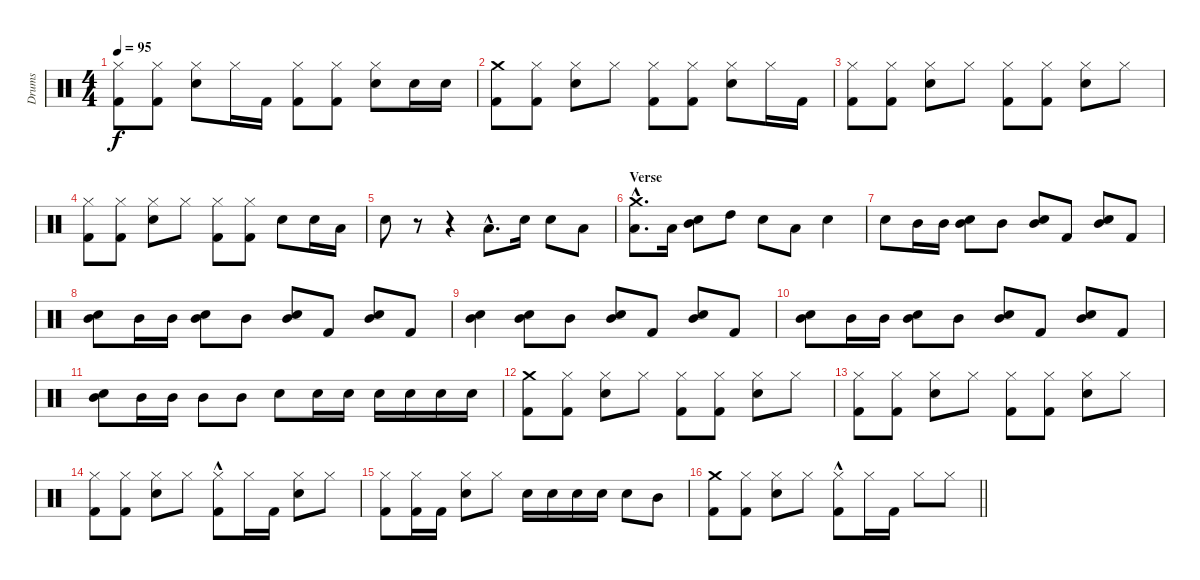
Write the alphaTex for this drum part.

\track ("Drums" "Drums") {instrument percussion}
\staff {score}
\articulation defaults
\ts (4 4)
\tempo 95
\clef neutral
\ks c
("Hi-Hat (closed)" "Kick (hit) 2").8{dy f} ("Hi-Hat (closed)" "Kick (hit) 2").8 ("Hi-Hat (closed)" "Snare (hit) 2").8 "Hi-Hat (closed)".16 "Kick (hit) 2".16 ("Hi-Hat (closed)" "Kick (hit) 2").8 ("Hi-Hat (closed)" "Kick (hit) 2").8 ("Hi-Hat (closed)" "Snare (hit) 2").8 "Snare (hit) 2".16 "Snare (hit) 2".16 |
("Crash medium (hit)" "Kick (hit) 2").8 ("Hi-Hat (closed)" "Kick (hit) 2").8 ("Hi-Hat (closed)" "Snare (hit) 2").8 "Hi-Hat (closed)".8 ("Hi-Hat (closed)" "Kick (hit) 2").8 ("Hi-Hat (closed)" "Kick (hit) 2").8 ("Hi-Hat (closed)" "Snare (hit) 2").8 "Hi-Hat (closed)".16 "Kick (hit) 2".16 |
("Hi-Hat (closed)" "Kick (hit) 2").8 ("Hi-Hat (closed)" "Kick (hit) 2").8 ("Hi-Hat (closed)" "Snare (hit) 2").8 "Hi-Hat (closed)".8 ("Hi-Hat (closed)" "Kick (hit) 2").8 ("Hi-Hat (closed)" "Kick (hit) 2").8 ("Hi-Hat (closed)" "Snare (hit) 2").8 "Hi-Hat (closed)".8 |
("Hi-Hat (closed)" "Kick (hit) 2").8 ("Hi-Hat (closed)" "Kick (hit) 2").8 ("Hi-Hat (closed)" "Snare (hit) 2").8 "Hi-Hat (closed)".8 ("Hi-Hat (closed)" "Kick (hit) 2").8 ("Hi-Hat (closed)" "Kick (hit) 2").8 "Snare (hit) 2".8 "Snare (hit) 2".16 "Low Tom (hit)".16 |
"Snare (hit) 2".8 r.8 r.4 "Low Tom (hit)"{hac}.8{d} "Snare (hit) 2".16 "Snare (hit) 2".8 "Low Tom (hit)".8 |
\section ("" "Verse")
("Crash medium (hit)"{hac} "Low Tom (hit)"{hac}).8{d} "Low Tom (hit)".16 ("Mid Tom (hit)" "Snare (hit) 2").8 "High Tom (hit)".8 "Snare (hit) 2".8 "Low Tom (hit)".8 "Snare (hit) 2".4 |
"Snare (hit) 2".8 "Mid Tom (hit)".16 "Mid Tom (hit)".16 ("Snare (hit) 2" "Mid Tom (hit)").8 "Mid Tom (hit)".8 ("Snare (hit) 2" "Mid Tom (hit)").8 "Kick (hit) 2".8 ("Snare (hit) 2" "Mid Tom (hit)").8 "Kick (hit) 2".8 |
("Snare (hit) 2" "Mid Tom (hit)").8 "Mid Tom (hit)".16 "Mid Tom (hit)".16 ("Mid Tom (hit)" "Snare (hit) 2").8 "Mid Tom (hit)".8 ("Mid Tom (hit)" "Snare (hit) 2").8 "Kick (hit) 2".8 ("Mid Tom (hit)" "Snare (hit) 2").8 "Kick (hit) 2".8 |
("Mid Tom (hit)" "Snare (hit) 2").4 ("Mid Tom (hit)" "Snare (hit) 2").8 "Mid Tom (hit)".8 ("Mid Tom (hit)" "Snare (hit) 2").8 "Kick (hit) 2".8 ("Mid Tom (hit)" "Snare (hit) 2").8 "Kick (hit) 2".8 |
("Mid Tom (hit)" "Snare (hit) 2").8 "Mid Tom (hit)".16 "Mid Tom (hit)".16 ("Mid Tom (hit)" "Snare (hit) 2").8 "Mid Tom (hit)".8 ("Mid Tom (hit)" "Snare (hit) 2").8 "Kick (hit) 2".8 ("Mid Tom (hit)" "Snare (hit) 2").8 "Kick (hit) 2".8 |
("Mid Tom (hit)" "Snare (hit) 2").8 "Mid Tom (hit)".16 "Mid Tom (hit)".16 "Mid Tom (hit)".8 "Mid Tom (hit)".8 "Snare (hit) 2".8 "Snare (hit) 2".16 "Snare (hit) 2".16 "Snare (hit) 2".16 "Snare (hit) 2".16 "Snare (hit) 2".16 "Snare (hit) 2".16 |
("Crash medium (hit)" "Kick (hit) 2").8 ("Hi-Hat (closed)" "Kick (hit) 2").8 ("Hi-Hat (closed)" "Snare (hit) 2").8 "Hi-Hat (closed)".8 ("Hi-Hat (closed)" "Kick (hit) 2").8 ("Hi-Hat (closed)" "Kick (hit) 2").8 ("Hi-Hat (closed)" "Snare (hit) 2").8 "Hi-Hat (closed)".8 |
("Hi-Hat (closed)" "Kick (hit) 2").8 ("Hi-Hat (closed)" "Kick (hit) 2").8 ("Hi-Hat (closed)" "Snare (hit) 2").8 "Hi-Hat (closed)".8 ("Hi-Hat (closed)" "Kick (hit) 2").8 ("Hi-Hat (closed)" "Kick (hit) 2").8 ("Hi-Hat (closed)" "Snare (hit) 2").8 "Hi-Hat (closed)".8 |
("Hi-Hat (closed)" "Kick (hit) 2").8 ("Hi-Hat (closed)" "Kick (hit) 2").8 ("Hi-Hat (closed)" "Snare (hit) 2").8 "Hi-Hat (closed)".8 ("Hi-Hat (closed)" "Kick (hit) 2"{hac}).8 "Hi-Hat (closed)".16 "Kick (hit) 2".16 ("Hi-Hat (closed)" "Snare (hit) 2").8 "Hi-Hat (closed)".8 |
("Hi-Hat (closed)" "Kick (hit) 2").8 ("Hi-Hat (closed)" "Kick (hit) 2").16 "Kick (hit) 2".16 ("Hi-Hat (closed)" "Snare (hit) 2").8 "Hi-Hat (closed)".8 "Snare (hit) 2".16 "Snare (hit) 2".16 "Snare (hit) 2".16 "Snare (hit) 2".16 "Snare (hit) 2".8 "Mid Tom (hit)".8 |
\barLineRight lightlight
("Crash medium (hit)" "Kick (hit) 2").8 ("Hi-Hat (closed)" "Kick (hit) 2").8 ("Hi-Hat (closed)" "Snare (hit) 2").8 "Hi-Hat (closed)".8 ("Hi-Hat (closed)" "Kick (hit) 2"{hac}).8 "Hi-Hat (closed)".16 "Kick (hit) 2".16 "Hi-Hat (closed)".8 "Hi-Hat (closed)".8
